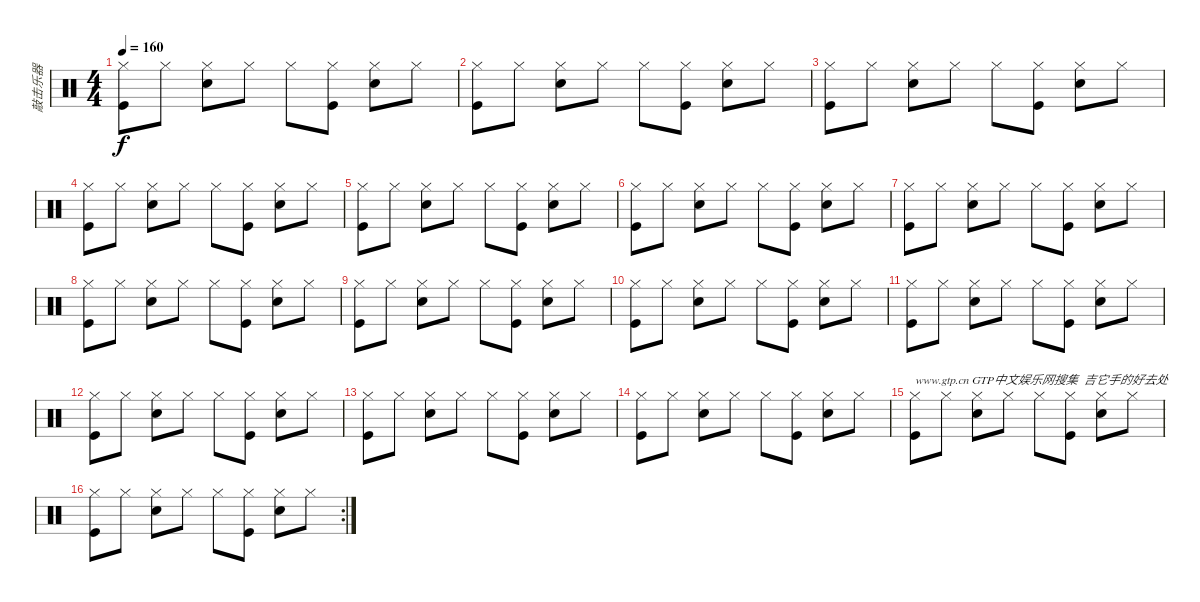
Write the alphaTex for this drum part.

\track ("敲击乐器" "敲击乐器") {instrument percussion}
\staff {score}
\articulation defaults
\ts (4 4)
\tempo 160
\clef neutral
\ks c
("Hi-Hat (closed)" "Kick (hit)").8{dy f} "Hi-Hat (closed)".8 ("Hi-Hat (closed)" "Electric Snare (hit)").8 "Hi-Hat (closed)".8 "Hi-Hat (closed)".8 ("Hi-Hat (closed)" "Kick (hit)").8 ("Hi-Hat (closed)" "Electric Snare (hit)").8 "Hi-Hat (closed)".8 |
("Hi-Hat (closed)" "Kick (hit)").8 "Hi-Hat (closed)".8 ("Hi-Hat (closed)" "Electric Snare (hit)").8 "Hi-Hat (closed)".8 "Hi-Hat (closed)".8 ("Hi-Hat (closed)" "Kick (hit)").8 ("Hi-Hat (closed)" "Electric Snare (hit)").8 "Hi-Hat (closed)".8 |
("Hi-Hat (closed)" "Kick (hit)").8 "Hi-Hat (closed)".8 ("Hi-Hat (closed)" "Electric Snare (hit)").8 "Hi-Hat (closed)".8 "Hi-Hat (closed)".8 ("Hi-Hat (closed)" "Kick (hit)").8 ("Hi-Hat (closed)" "Electric Snare (hit)").8 "Hi-Hat (closed)".8 |
("Hi-Hat (closed)" "Kick (hit)").8 "Hi-Hat (closed)".8 ("Hi-Hat (closed)" "Electric Snare (hit)").8 "Hi-Hat (closed)".8 "Hi-Hat (closed)".8 ("Hi-Hat (closed)" "Kick (hit)").8 ("Hi-Hat (closed)" "Electric Snare (hit)").8 "Hi-Hat (closed)".8 |
("Hi-Hat (closed)" "Kick (hit)").8 "Hi-Hat (closed)".8 ("Hi-Hat (closed)" "Electric Snare (hit)").8 "Hi-Hat (closed)".8 "Hi-Hat (closed)".8 ("Hi-Hat (closed)" "Kick (hit)").8 ("Hi-Hat (closed)" "Electric Snare (hit)").8 "Hi-Hat (closed)".8 |
("Hi-Hat (closed)" "Kick (hit)").8 "Hi-Hat (closed)".8 ("Hi-Hat (closed)" "Electric Snare (hit)").8 "Hi-Hat (closed)".8 "Hi-Hat (closed)".8 ("Hi-Hat (closed)" "Kick (hit)").8 ("Hi-Hat (closed)" "Electric Snare (hit)").8 "Hi-Hat (closed)".8 |
("Hi-Hat (closed)" "Kick (hit)").8 "Hi-Hat (closed)".8 ("Hi-Hat (closed)" "Electric Snare (hit)").8 "Hi-Hat (closed)".8 "Hi-Hat (closed)".8 ("Hi-Hat (closed)" "Kick (hit)").8 ("Hi-Hat (closed)" "Electric Snare (hit)").8 "Hi-Hat (closed)".8 |
("Hi-Hat (closed)" "Kick (hit)").8 "Hi-Hat (closed)".8 ("Hi-Hat (closed)" "Electric Snare (hit)").8 "Hi-Hat (closed)".8 "Hi-Hat (closed)".8 ("Hi-Hat (closed)" "Kick (hit)").8 ("Hi-Hat (closed)" "Electric Snare (hit)").8 "Hi-Hat (closed)".8 |
("Hi-Hat (closed)" "Kick (hit)").8 "Hi-Hat (closed)".8 ("Hi-Hat (closed)" "Electric Snare (hit)").8 "Hi-Hat (closed)".8 "Hi-Hat (closed)".8 ("Hi-Hat (closed)" "Kick (hit)").8 ("Hi-Hat (closed)" "Electric Snare (hit)").8 "Hi-Hat (closed)".8 |
("Hi-Hat (closed)" "Kick (hit)").8 "Hi-Hat (closed)".8 ("Hi-Hat (closed)" "Electric Snare (hit)").8 "Hi-Hat (closed)".8 "Hi-Hat (closed)".8 ("Hi-Hat (closed)" "Kick (hit)").8 ("Hi-Hat (closed)" "Electric Snare (hit)").8 "Hi-Hat (closed)".8 |
("Hi-Hat (closed)" "Kick (hit)").8 "Hi-Hat (closed)".8 ("Hi-Hat (closed)" "Electric Snare (hit)").8 "Hi-Hat (closed)".8 "Hi-Hat (closed)".8 ("Hi-Hat (closed)" "Kick (hit)").8 ("Hi-Hat (closed)" "Electric Snare (hit)").8 "Hi-Hat (closed)".8 |
("Hi-Hat (closed)" "Kick (hit)").8 "Hi-Hat (closed)".8 ("Hi-Hat (closed)" "Electric Snare (hit)").8 "Hi-Hat (closed)".8 "Hi-Hat (closed)".8 ("Hi-Hat (closed)" "Kick (hit)").8 ("Hi-Hat (closed)" "Electric Snare (hit)").8 "Hi-Hat (closed)".8 |
("Hi-Hat (closed)" "Kick (hit)").8 "Hi-Hat (closed)".8 ("Hi-Hat (closed)" "Electric Snare (hit)").8 "Hi-Hat (closed)".8 "Hi-Hat (closed)".8 ("Hi-Hat (closed)" "Kick (hit)").8 ("Hi-Hat (closed)" "Electric Snare (hit)").8 "Hi-Hat (closed)".8 |
("Hi-Hat (closed)" "Kick (hit)").8 "Hi-Hat (closed)".8 ("Hi-Hat (closed)" "Electric Snare (hit)").8 "Hi-Hat (closed)".8 "Hi-Hat (closed)".8 ("Hi-Hat (closed)" "Kick (hit)").8 ("Hi-Hat (closed)" "Electric Snare (hit)").8 "Hi-Hat (closed)".8 |
("Hi-Hat (closed)" "Kick (hit)").8{txt "www.gtp.cn GTP中文娱乐网搜集  吉它手的好去处"} "Hi-Hat (closed)".8 ("Hi-Hat (closed)" "Electric Snare (hit)").8 "Hi-Hat (closed)".8 "Hi-Hat (closed)".8 ("Hi-Hat (closed)" "Kick (hit)").8 ("Hi-Hat (closed)" "Electric Snare (hit)").8 "Hi-Hat (closed)".8 |
\rc 2
("Hi-Hat (closed)" "Kick (hit)").8 "Hi-Hat (closed)".8 ("Hi-Hat (closed)" "Electric Snare (hit)").8 "Hi-Hat (closed)".8 "Hi-Hat (closed)".8 ("Hi-Hat (closed)" "Kick (hit)").8 ("Hi-Hat (closed)" "Electric Snare (hit)").8 "Hi-Hat (closed)".8
